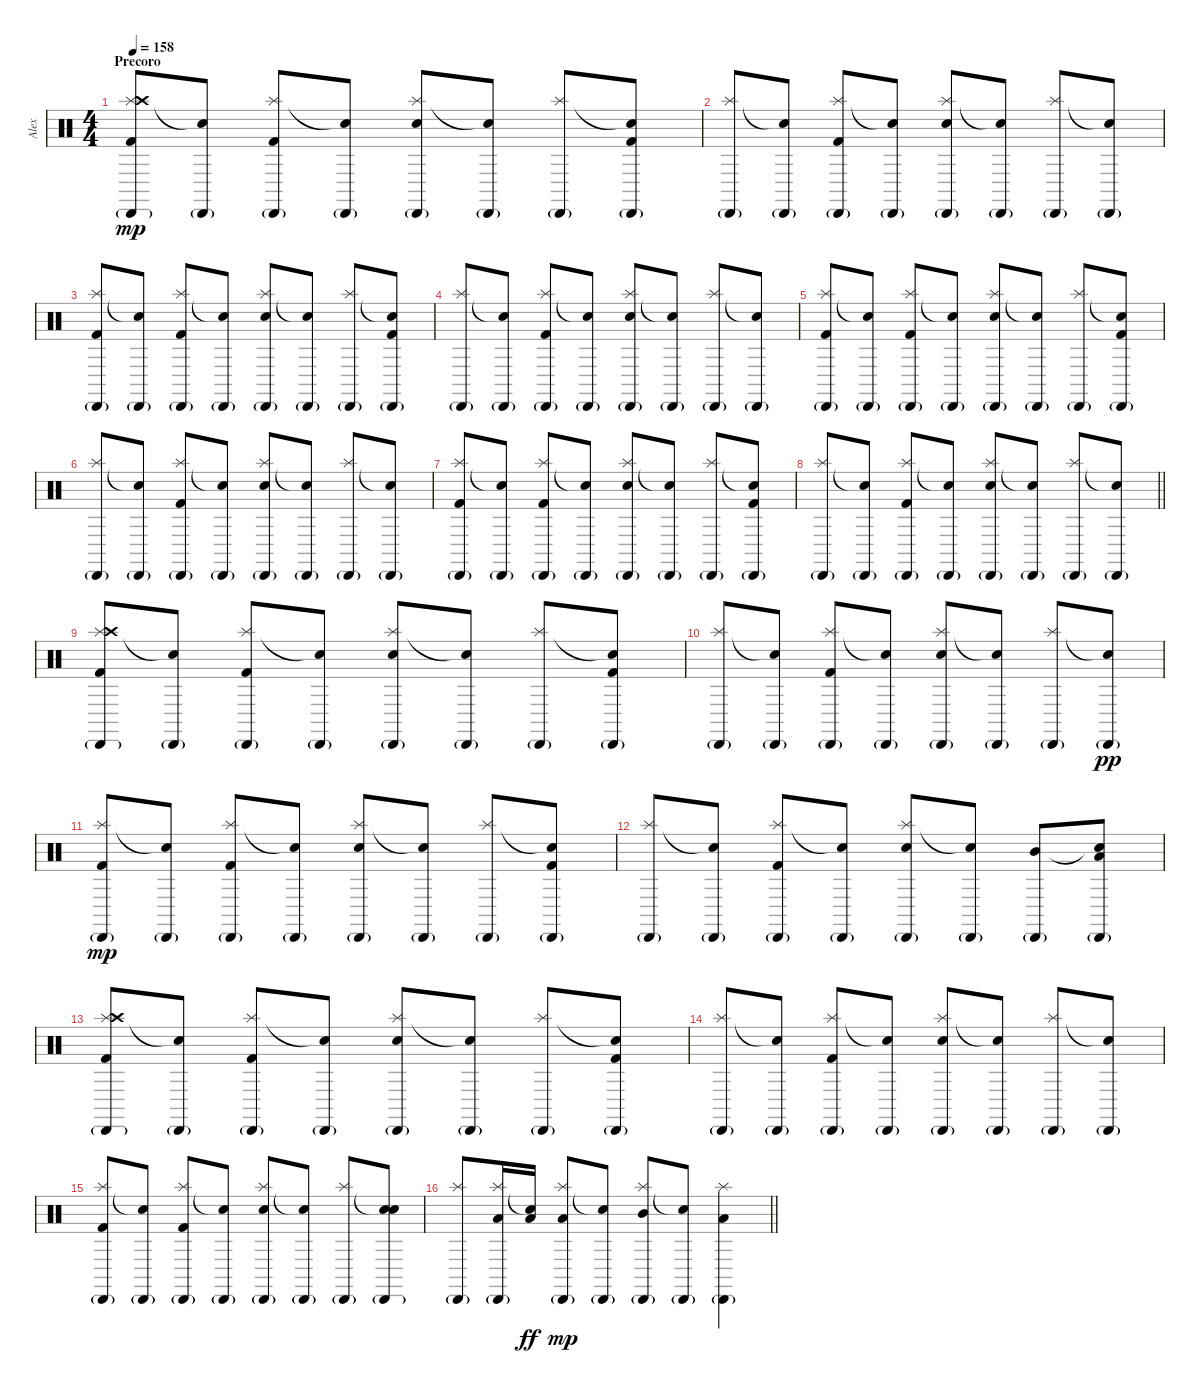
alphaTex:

\track ("Alex" "Alex") {instrument percussion}
\staff {score}
\articulation defaults
\ts (4 4)
\section ("" "Precoro")
\tempo 158
\clef neutral
\ks c
("Splash (hit)" "Kick (hit) 2" "Crash high (hit)" "Cabasa (hit)"{g}).8{dy mp} ("Snare (hit)"{t} "Cabasa (hit)"{g}).8 ("Splash (hit)" "Kick (hit) 2" "Cabasa (hit)"{g}).8 ("Snare (hit)"{t} "Cabasa (hit)"{g}).8 ("Splash (hit)" "Electric Snare (hit)" "Cabasa (hit)"{g}).8 ("Snare (hit)"{t} "Cabasa (hit)"{g}).8 ("Splash (hit)" "Cabasa (hit)"{g}).8 ("Snare (hit)"{t} "Kick (hit) 2" "Cabasa (hit)"{g}).8 |
("Splash (hit)" "Cabasa (hit)"{g}).8 ("Snare (hit)"{t} "Cabasa (hit)"{g}).8 ("Splash (hit)" "Kick (hit) 2" "Cabasa (hit)"{g}).8 ("Snare (hit)"{t} "Cabasa (hit)"{g}).8 ("Splash (hit)" "Electric Snare (hit)" "Cabasa (hit)"{g}).8 ("Snare (hit)"{t} "Cabasa (hit)"{g}).8 ("Splash (hit)" "Cabasa (hit)"{g}).8 ("Snare (hit)"{t} "Cabasa (hit)"{g}).8 |
("Splash (hit)" "Kick (hit) 2" "Cabasa (hit)"{g}).8 ("Snare (hit)"{t} "Cabasa (hit)"{g}).8 ("Splash (hit)" "Kick (hit) 2" "Cabasa (hit)"{g}).8 ("Snare (hit)"{t} "Cabasa (hit)"{g}).8 ("Splash (hit)" "Electric Snare (hit)" "Cabasa (hit)"{g}).8 ("Snare (hit)"{t} "Cabasa (hit)"{g}).8 ("Splash (hit)" "Cabasa (hit)"{g}).8 ("Snare (hit)"{t} "Kick (hit) 2" "Cabasa (hit)"{g}).8 |
("Splash (hit)" "Cabasa (hit)"{g}).8 ("Snare (hit)"{t} "Cabasa (hit)"{g}).8 ("Splash (hit)" "Kick (hit) 2" "Cabasa (hit)"{g}).8 ("Snare (hit)"{t} "Cabasa (hit)"{g}).8 ("Splash (hit)" "Electric Snare (hit)" "Cabasa (hit)"{g}).8 ("Snare (hit)"{t} "Cabasa (hit)"{g}).8 ("Splash (hit)" "Cabasa (hit)"{g}).8 ("Snare (hit)"{t} "Cabasa (hit)"{g}).8 |
("Splash (hit)" "Kick (hit) 2" "Cabasa (hit)"{g}).8 ("Snare (hit)"{t} "Cabasa (hit)"{g}).8 ("Splash (hit)" "Kick (hit) 2" "Cabasa (hit)"{g}).8 ("Snare (hit)"{t} "Cabasa (hit)"{g}).8 ("Splash (hit)" "Electric Snare (hit)" "Cabasa (hit)"{g}).8 ("Snare (hit)"{t} "Cabasa (hit)"{g}).8 ("Splash (hit)" "Cabasa (hit)"{g}).8 ("Snare (hit)"{t} "Kick (hit) 2" "Cabasa (hit)"{g}).8 |
("Splash (hit)" "Cabasa (hit)"{g}).8 ("Snare (hit)"{t} "Cabasa (hit)"{g}).8 ("Splash (hit)" "Kick (hit) 2" "Cabasa (hit)"{g}).8 ("Snare (hit)"{t} "Cabasa (hit)"{g}).8 ("Splash (hit)" "Electric Snare (hit)" "Cabasa (hit)"{g}).8 ("Snare (hit)"{t} "Cabasa (hit)"{g}).8 ("Splash (hit)" "Cabasa (hit)"{g}).8 ("Snare (hit)"{t} "Cabasa (hit)"{g}).8 |
("Splash (hit)" "Kick (hit) 2" "Cabasa (hit)"{g}).8 ("Snare (hit)"{t} "Cabasa (hit)"{g}).8 ("Splash (hit)" "Kick (hit) 2" "Cabasa (hit)"{g}).8 ("Snare (hit)"{t} "Cabasa (hit)"{g}).8 ("Splash (hit)" "Electric Snare (hit)" "Cabasa (hit)"{g}).8 ("Snare (hit)"{t} "Cabasa (hit)"{g}).8 ("Splash (hit)" "Cabasa (hit)"{g}).8 ("Snare (hit)"{t} "Kick (hit) 2" "Cabasa (hit)"{g}).8 |
\barLineRight lightlight
("Splash (hit)" "Cabasa (hit)"{g}).8 ("Snare (hit)"{t} "Cabasa (hit)"{g}).8 ("Splash (hit)" "Kick (hit) 2" "Cabasa (hit)"{g}).8 ("Snare (hit)"{t} "Cabasa (hit)"{g}).8 ("Splash (hit)" "Electric Snare (hit)" "Cabasa (hit)"{g}).8 ("Snare (hit)"{t} "Cabasa (hit)"{g}).8 ("Splash (hit)" "Cabasa (hit)"{g}).8 ("Snare (hit)"{t} "Cabasa (hit)"{g}).8 |
("Splash (hit)" "Kick (hit) 2" "Crash high (hit)" "Cabasa (hit)"{g}).8 ("Snare (hit)"{t} "Cabasa (hit)"{g}).8 ("Splash (hit)" "Kick (hit) 2" "Cabasa (hit)"{g}).8 ("Snare (hit)"{t} "Cabasa (hit)"{g}).8 ("Splash (hit)" "Electric Snare (hit)" "Cabasa (hit)"{g}).8 ("Snare (hit)"{t} "Cabasa (hit)"{g}).8 ("Splash (hit)" "Cabasa (hit)"{g}).8 ("Snare (hit)"{t} "Kick (hit) 2" "Cabasa (hit)"{g}).8 |
("Splash (hit)" "Cabasa (hit)"{g}).8 ("Snare (hit)"{t} "Cabasa (hit)"{g}).8 ("Splash (hit)" "Kick (hit) 2" "Cabasa (hit)"{g}).8 ("Snare (hit)"{t} "Cabasa (hit)"{g}).8 ("Splash (hit)" "Electric Snare (hit)" "Cabasa (hit)"{g}).8 ("Snare (hit)"{t} "Cabasa (hit)"{g}).8 ("Splash (hit)" "Cabasa (hit)"{g}).8 ("Snare (hit)"{t} "Cabasa (hit)"{g}).8{dy pp} |
("Splash (hit)" "Kick (hit) 2" "Cabasa (hit)"{g}).8{dy mp} ("Snare (hit)"{t} "Cabasa (hit)"{g}).8 ("Splash (hit)" "Kick (hit) 2" "Cabasa (hit)"{g}).8 ("Snare (hit)"{t} "Cabasa (hit)"{g}).8 ("Splash (hit)" "Electric Snare (hit)" "Cabasa (hit)"{g}).8 ("Snare (hit)"{t} "Cabasa (hit)"{g}).8 ("Splash (hit)" "Cabasa (hit)"{g}).8 ("Snare (hit)"{t} "Kick (hit) 2" "Cabasa (hit)"{g}).8 |
("Splash (hit)" "Cabasa (hit)"{g}).8 ("Snare (hit)"{t} "Cabasa (hit)"{g}).8 ("Splash (hit)" "Kick (hit) 2" "Cabasa (hit)"{g}).8 ("Snare (hit)"{t} "Cabasa (hit)"{g}).8 ("Splash (hit)" "Electric Snare (hit)" "Cabasa (hit)"{g}).8 ("Snare (hit)"{t} "Cabasa (hit)"{g}).8 ("Mid Tom (hit)" "Cabasa (hit)"{g}).8 ("Snare (hit)"{t} "Low Tom (hit)" "Cabasa (hit)"{g}).8 |
("Splash (hit)" "Kick (hit) 2" "Crash high (hit)" "Cabasa (hit)"{g}).8 ("Snare (hit)"{t} "Cabasa (hit)"{g}).8 ("Splash (hit)" "Kick (hit) 2" "Cabasa (hit)"{g}).8 ("Snare (hit)"{t} "Cabasa (hit)"{g}).8 ("Splash (hit)" "Electric Snare (hit)" "Cabasa (hit)"{g}).8 ("Snare (hit)"{t} "Cabasa (hit)"{g}).8 ("Splash (hit)" "Cabasa (hit)"{g}).8 ("Snare (hit)"{t} "Kick (hit) 2" "Cabasa (hit)"{g}).8 |
("Splash (hit)" "Cabasa (hit)"{g}).8 ("Snare (hit)"{t} "Cabasa (hit)"{g}).8 ("Splash (hit)" "Kick (hit) 2" "Cabasa (hit)"{g}).8 ("Snare (hit)"{t} "Cabasa (hit)"{g}).8 ("Splash (hit)" "Electric Snare (hit)" "Cabasa (hit)"{g}).8 ("Snare (hit)"{t} "Cabasa (hit)"{g}).8 ("Splash (hit)" "Cabasa (hit)"{g}).8 ("Snare (hit)"{t} "Cabasa (hit)"{g}).8 |
("Splash (hit)" "Kick (hit) 2" "Cabasa (hit)"{g}).8 ("Snare (hit)"{t} "Cabasa (hit)"{g}).8 ("Splash (hit)" "Kick (hit) 2" "Cabasa (hit)"{g}).8 ("Snare (hit)"{t} "Cabasa (hit)"{g}).8 ("Splash (hit)" "Electric Snare (hit)" "Cabasa (hit)"{g}).8 ("Snare (hit)"{t} "Cabasa (hit)"{g}).8 ("Splash (hit)" "Cabasa (hit)"{g}).8 ("Snare (hit)"{t} "Electric Snare (hit)" "Cabasa (hit)"{g}).8 |
\barLineRight lightlight
("Splash (hit)" "Cabasa (hit)"{g}).8 ("Splash (hit)" "Low Tom (hit)" "Cabasa (hit)"{g}).16 ("Snare (hit)"{t} "Low Tom (hit)").16{dy ff} ("Splash (hit)" "Low Tom (hit)" "Cabasa (hit)"{g}).8{dy mp} ("Snare (hit)"{t} "Cabasa (hit)"{g}).8 ("Splash (hit)" "Mid Tom (hit)" "Cabasa (hit)"{g}).8 ("Snare (hit)"{t} "Cabasa (hit)"{g}).8 ("Splash (hit)" "Low Tom (hit)" "Cabasa (hit)"{g}).4
